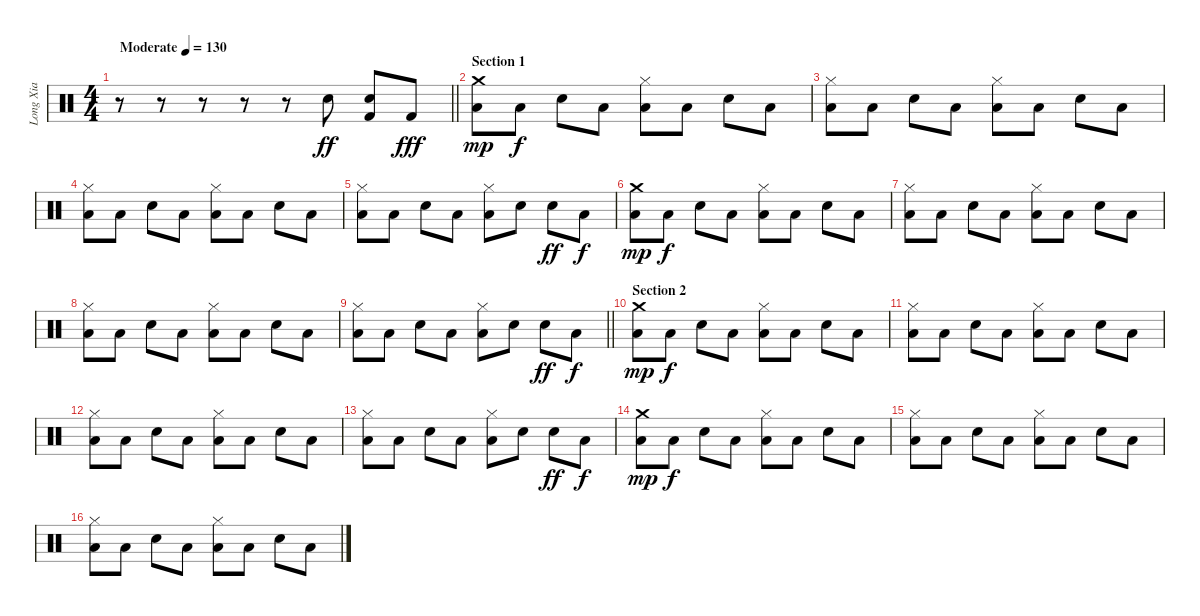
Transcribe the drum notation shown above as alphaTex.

\track ("Long Xia" "Long Xia") {instrument percussion}
\staff {score}
\articulation defaults
\ts (4 4)
\tempo (130 "Moderate")
\clef neutral
\barLineRight lightlight
\ks c
r.8{dy ff} r.8 r.8 r.8 r.8 "Electric Snare (hit)".8 ("Electric Snare (hit)" "Kick (hit) 2").8 "Kick (hit) 2".8{dy fff} |
\section ("" "Section 1")
("Low Floor Tom (hit)" "Crash medium (hit)").8{dy mp} "Low Floor Tom (hit)".8{dy f} "Electric Snare (hit)".8 "Low Floor Tom (hit)".8 ("Low Floor Tom (hit)" "Hi-Hat (closed)").8 "Low Floor Tom (hit)".8 "Electric Snare (hit)".8 "Low Floor Tom (hit)".8 |
("Low Floor Tom (hit)" "Hi-Hat (closed)").8 "Low Floor Tom (hit)".8 "Electric Snare (hit)".8 "Low Floor Tom (hit)".8 ("Low Floor Tom (hit)" "Hi-Hat (closed)").8 "Low Floor Tom (hit)".8 "Electric Snare (hit)".8 "Low Floor Tom (hit)".8 |
("Low Floor Tom (hit)" "Hi-Hat (closed)").8 "Low Floor Tom (hit)".8 "Electric Snare (hit)".8 "Low Floor Tom (hit)".8 ("Low Floor Tom (hit)" "Hi-Hat (closed)").8 "Low Floor Tom (hit)".8 "Electric Snare (hit)".8 "Low Floor Tom (hit)".8 |
("Low Floor Tom (hit)" "Hi-Hat (closed)").8 "Low Floor Tom (hit)".8 "Electric Snare (hit)".8 "Low Floor Tom (hit)".8 ("Low Floor Tom (hit)" "Hi-Hat (closed)").8 "Electric Snare (hit)".8 "Electric Snare (hit)".8{dy ff} "Low Floor Tom (hit)".8{dy f} |
("Low Floor Tom (hit)" "Crash medium (hit)").8{dy mp} "Low Floor Tom (hit)".8{dy f} "Electric Snare (hit)".8 "Low Floor Tom (hit)".8 ("Low Floor Tom (hit)" "Hi-Hat (closed)").8 "Low Floor Tom (hit)".8 "Electric Snare (hit)".8 "Low Floor Tom (hit)".8 |
("Low Floor Tom (hit)" "Hi-Hat (closed)").8 "Low Floor Tom (hit)".8 "Electric Snare (hit)".8 "Low Floor Tom (hit)".8 ("Low Floor Tom (hit)" "Hi-Hat (closed)").8 "Low Floor Tom (hit)".8 "Electric Snare (hit)".8 "Low Floor Tom (hit)".8 |
("Low Floor Tom (hit)" "Hi-Hat (closed)").8 "Low Floor Tom (hit)".8 "Electric Snare (hit)".8 "Low Floor Tom (hit)".8 ("Low Floor Tom (hit)" "Hi-Hat (closed)").8 "Low Floor Tom (hit)".8 "Electric Snare (hit)".8 "Low Floor Tom (hit)".8 |
\barLineRight lightlight
("Low Floor Tom (hit)" "Hi-Hat (closed)").8 "Low Floor Tom (hit)".8 "Electric Snare (hit)".8 "Low Floor Tom (hit)".8 ("Low Floor Tom (hit)" "Hi-Hat (closed)").8 "Electric Snare (hit)".8 "Electric Snare (hit)".8{dy ff} "Low Floor Tom (hit)".8{dy f} |
\section ("" "Section 2")
("Low Floor Tom (hit)" "Crash medium (hit)").8{dy mp} "Low Floor Tom (hit)".8{dy f} "Electric Snare (hit)".8 "Low Floor Tom (hit)".8 ("Low Floor Tom (hit)" "Hi-Hat (closed)").8 "Low Floor Tom (hit)".8 "Electric Snare (hit)".8 "Low Floor Tom (hit)".8 |
("Low Floor Tom (hit)" "Hi-Hat (closed)").8 "Low Floor Tom (hit)".8 "Electric Snare (hit)".8 "Low Floor Tom (hit)".8 ("Low Floor Tom (hit)" "Hi-Hat (closed)").8 "Low Floor Tom (hit)".8 "Electric Snare (hit)".8 "Low Floor Tom (hit)".8 |
("Low Floor Tom (hit)" "Hi-Hat (closed)").8 "Low Floor Tom (hit)".8 "Electric Snare (hit)".8 "Low Floor Tom (hit)".8 ("Low Floor Tom (hit)" "Hi-Hat (closed)").8 "Low Floor Tom (hit)".8 "Electric Snare (hit)".8 "Low Floor Tom (hit)".8 |
("Low Floor Tom (hit)" "Hi-Hat (closed)").8 "Low Floor Tom (hit)".8 "Electric Snare (hit)".8 "Low Floor Tom (hit)".8 ("Low Floor Tom (hit)" "Hi-Hat (closed)").8 "Electric Snare (hit)".8 "Electric Snare (hit)".8{dy ff} "Low Floor Tom (hit)".8{dy f} |
("Low Floor Tom (hit)" "Crash medium (hit)").8{dy mp} "Low Floor Tom (hit)".8{dy f} "Electric Snare (hit)".8 "Low Floor Tom (hit)".8 ("Low Floor Tom (hit)" "Hi-Hat (closed)").8 "Low Floor Tom (hit)".8 "Electric Snare (hit)".8 "Low Floor Tom (hit)".8 |
("Low Floor Tom (hit)" "Hi-Hat (closed)").8 "Low Floor Tom (hit)".8 "Electric Snare (hit)".8 "Low Floor Tom (hit)".8 ("Low Floor Tom (hit)" "Hi-Hat (closed)").8 "Low Floor Tom (hit)".8 "Electric Snare (hit)".8 "Low Floor Tom (hit)".8 |
("Low Floor Tom (hit)" "Hi-Hat (closed)").8 "Low Floor Tom (hit)".8 "Electric Snare (hit)".8 "Low Floor Tom (hit)".8 ("Low Floor Tom (hit)" "Hi-Hat (closed)").8 "Low Floor Tom (hit)".8 "Electric Snare (hit)".8 "Low Floor Tom (hit)".8
